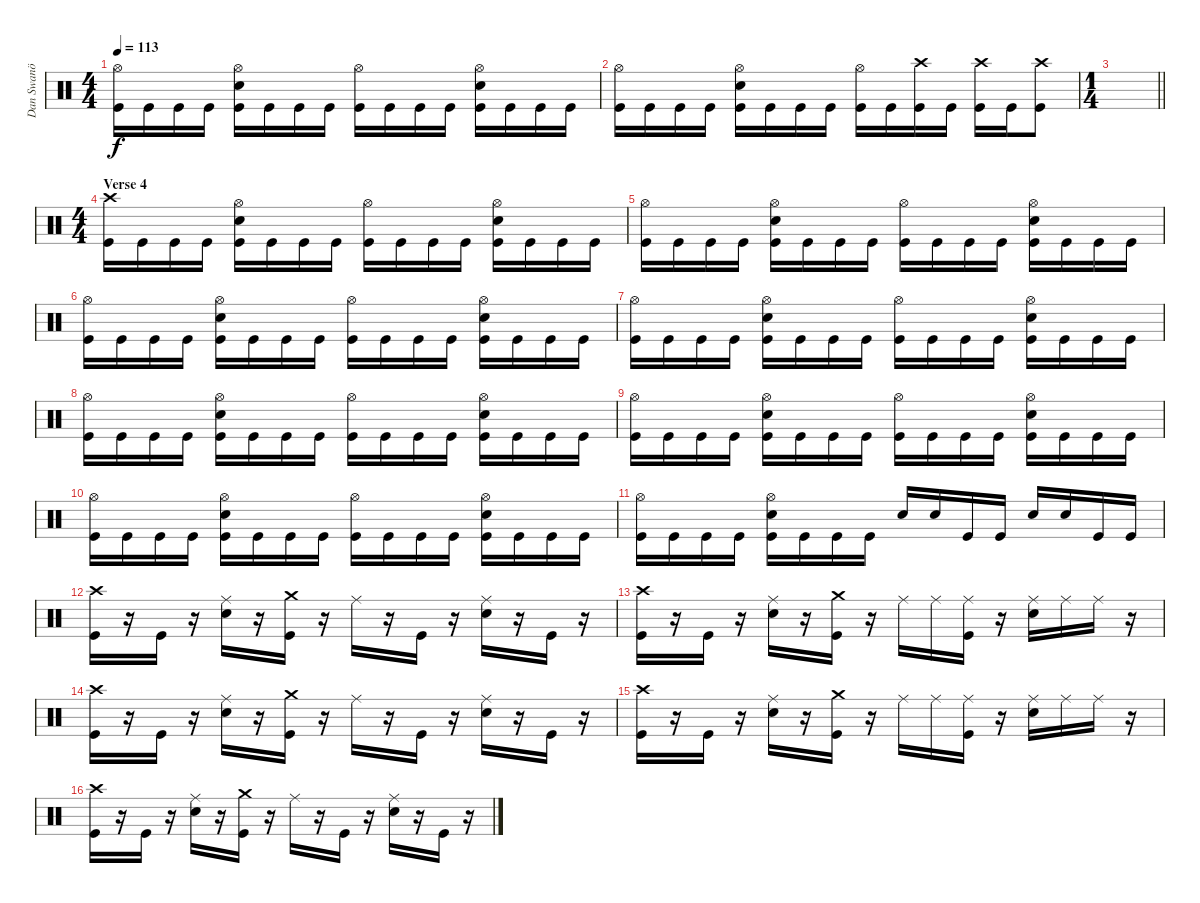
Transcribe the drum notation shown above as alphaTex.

\track ("Dan Swanö" "Dan Swanö") {instrument percussion}
\staff {score}
\articulation defaults
\ts (4 4)
\tempo 113
\clef neutral
\ks c
("Hi-Hat (open)" "Kick (hit)").16{dy f} "Kick (hit)".16 "Kick (hit)".16 "Kick (hit)".16 ("Hi-Hat (open)" "Snare (hit) 2" "Kick (hit)").16 "Kick (hit)".16 "Kick (hit)".16 "Kick (hit)".16 ("Hi-Hat (open)" "Kick (hit)").16 "Kick (hit)".16 "Kick (hit)".16 "Kick (hit)".16 ("Hi-Hat (open)" "Snare (hit) 2" "Kick (hit)").16 "Kick (hit)".16 "Kick (hit)".16 "Kick (hit)".16 |
("Hi-Hat (open)" "Kick (hit)").16 "Kick (hit)".16 "Kick (hit)".16 "Kick (hit)".16 ("Hi-Hat (open)" "Snare (hit) 2" "Kick (hit)").16 "Kick (hit)".16 "Kick (hit)".16 "Kick (hit)".16 ("Hi-Hat (open)" "Kick (hit)").16 "Kick (hit)".16 ("Crash high (hit)" "Kick (hit)").16 "Kick (hit)".16 ("Crash high (hit)" "Kick (hit)").16 "Kick (hit)".16 ("Crash high (hit)" "Kick (hit)").8 |
\ts (1 4)
\barLineRight lightlight
|
\ts (4 4)
\section ("" "Verse 4")
("Crash high (hit)" "Kick (hit)").16 "Kick (hit)".16 "Kick (hit)".16 "Kick (hit)".16 ("Hi-Hat (open)" "Snare (hit) 2" "Kick (hit)").16 "Kick (hit)".16 "Kick (hit)".16 "Kick (hit)".16 ("Hi-Hat (open)" "Kick (hit)").16 "Kick (hit)".16 "Kick (hit)".16 "Kick (hit)".16 ("Hi-Hat (open)" "Snare (hit) 2" "Kick (hit)").16 "Kick (hit)".16 "Kick (hit)".16 "Kick (hit)".16 |
("Hi-Hat (open)" "Kick (hit)").16 "Kick (hit)".16 "Kick (hit)".16 "Kick (hit)".16 ("Hi-Hat (open)" "Snare (hit) 2" "Kick (hit)").16 "Kick (hit)".16 "Kick (hit)".16 "Kick (hit)".16 ("Hi-Hat (open)" "Kick (hit)").16 "Kick (hit)".16 "Kick (hit)".16 "Kick (hit)".16 ("Hi-Hat (open)" "Snare (hit) 2" "Kick (hit)").16 "Kick (hit)".16 "Kick (hit)".16 "Kick (hit)".16 |
("Hi-Hat (open)" "Kick (hit)").16 "Kick (hit)".16 "Kick (hit)".16 "Kick (hit)".16 ("Hi-Hat (open)" "Snare (hit) 2" "Kick (hit)").16 "Kick (hit)".16 "Kick (hit)".16 "Kick (hit)".16 ("Hi-Hat (open)" "Kick (hit)").16 "Kick (hit)".16 "Kick (hit)".16 "Kick (hit)".16 ("Hi-Hat (open)" "Snare (hit) 2" "Kick (hit)").16 "Kick (hit)".16 "Kick (hit)".16 "Kick (hit)".16 |
("Hi-Hat (open)" "Kick (hit)").16 "Kick (hit)".16 "Kick (hit)".16 "Kick (hit)".16 ("Hi-Hat (open)" "Snare (hit) 2" "Kick (hit)").16 "Kick (hit)".16 "Kick (hit)".16 "Kick (hit)".16 ("Hi-Hat (open)" "Kick (hit)").16 "Kick (hit)".16 "Kick (hit)".16 "Kick (hit)".16 ("Hi-Hat (open)" "Snare (hit) 2" "Kick (hit)").16 "Kick (hit)".16 "Kick (hit)".16 "Kick (hit)".16 |
("Hi-Hat (open)" "Kick (hit)").16 "Kick (hit)".16 "Kick (hit)".16 "Kick (hit)".16 ("Hi-Hat (open)" "Snare (hit) 2" "Kick (hit)").16 "Kick (hit)".16 "Kick (hit)".16 "Kick (hit)".16 ("Hi-Hat (open)" "Kick (hit)").16 "Kick (hit)".16 "Kick (hit)".16 "Kick (hit)".16 ("Hi-Hat (open)" "Snare (hit) 2" "Kick (hit)").16 "Kick (hit)".16 "Kick (hit)".16 "Kick (hit)".16 |
("Hi-Hat (open)" "Kick (hit)").16 "Kick (hit)".16 "Kick (hit)".16 "Kick (hit)".16 ("Hi-Hat (open)" "Snare (hit) 2" "Kick (hit)").16 "Kick (hit)".16 "Kick (hit)".16 "Kick (hit)".16 ("Hi-Hat (open)" "Kick (hit)").16 "Kick (hit)".16 "Kick (hit)".16 "Kick (hit)".16 ("Hi-Hat (open)" "Snare (hit) 2" "Kick (hit)").16 "Kick (hit)".16 "Kick (hit)".16 "Kick (hit)".16 |
("Hi-Hat (open)" "Kick (hit)").16 "Kick (hit)".16 "Kick (hit)".16 "Kick (hit)".16 ("Hi-Hat (open)" "Snare (hit) 2" "Kick (hit)").16 "Kick (hit)".16 "Kick (hit)".16 "Kick (hit)".16 ("Hi-Hat (open)" "Kick (hit)").16 "Kick (hit)".16 "Kick (hit)".16 "Kick (hit)".16 ("Hi-Hat (open)" "Snare (hit) 2" "Kick (hit)").16 "Kick (hit)".16 "Kick (hit)".16 "Kick (hit)".16 |
("Hi-Hat (open)" "Kick (hit)").16 "Kick (hit)".16 "Kick (hit)".16 "Kick (hit)".16 ("Hi-Hat (open)" "Snare (hit) 2" "Kick (hit)").16 "Kick (hit)".16 "Kick (hit)".16 "Kick (hit)".16 "Snare (hit) 2".16 "Snare (hit) 2".16 "Kick (hit)".16 "Kick (hit)".16 "Snare (hit) 2".16 "Snare (hit) 2".16 "Kick (hit)".16 "Kick (hit)".16 |
("Crash high (hit)" "Kick (hit)").16 r.16 "Kick (hit)".16 r.16 ("Ride (middle)" "Snare (hit) 2").16 r.16 ("Crash medium (hit)" "Kick (hit)").16 r.16 "Ride (middle)".16 r.16 "Kick (hit)".16 r.16 ("Ride (middle)" "Snare (hit) 2").16 r.16 "Kick (hit)".16 r.16 |
("Crash high (hit)" "Kick (hit)").16 r.16 "Kick (hit)".16 r.16 ("Ride (middle)" "Snare (hit) 2").16 r.16 ("Crash medium (hit)" "Kick (hit)").16 r.16 "Ride (middle)".16 "Ride (middle)".16 ("Ride (middle)" "Kick (hit)").16 r.16 ("Ride (middle)" "Snare (hit) 2").16 "Ride (middle)".16 "Ride (middle)".16 r.16 |
("Crash high (hit)" "Kick (hit)").16 r.16 "Kick (hit)".16 r.16 ("Ride (middle)" "Snare (hit) 2").16 r.16 ("Crash medium (hit)" "Kick (hit)").16 r.16 "Ride (middle)".16 r.16 "Kick (hit)".16 r.16 ("Ride (middle)" "Snare (hit) 2").16 r.16 "Kick (hit)".16 r.16 |
("Crash high (hit)" "Kick (hit)").16 r.16 "Kick (hit)".16 r.16 ("Ride (middle)" "Snare (hit) 2").16 r.16 ("Crash medium (hit)" "Kick (hit)").16 r.16 "Ride (middle)".16 "Ride (middle)".16 ("Ride (middle)" "Kick (hit)").16 r.16 ("Ride (middle)" "Snare (hit) 2").16 "Ride (middle)".16 "Ride (middle)".16 r.16 |
("Crash high (hit)" "Kick (hit)").16 r.16 "Kick (hit)".16 r.16 ("Ride (middle)" "Snare (hit) 2").16 r.16 ("Crash medium (hit)" "Kick (hit)").16 r.16 "Ride (middle)".16 r.16 "Kick (hit)".16 r.16 ("Ride (middle)" "Snare (hit) 2").16 r.16 "Kick (hit)".16 r.16
